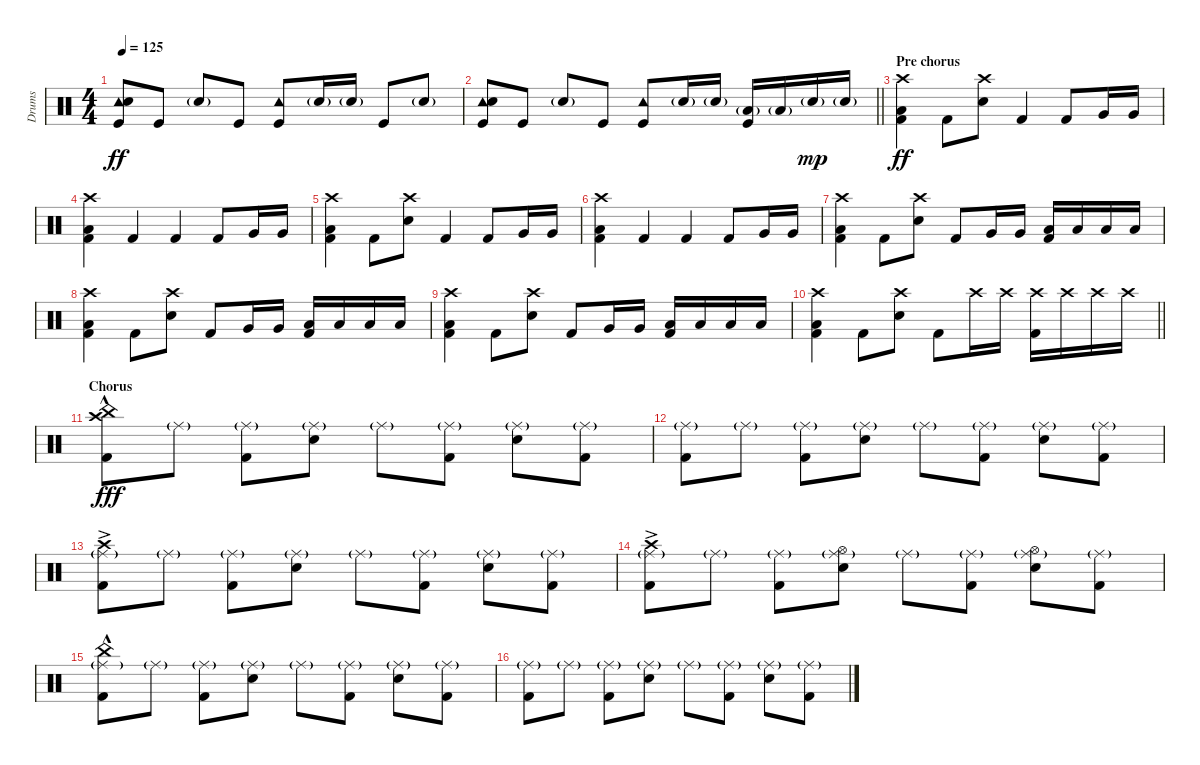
\track ("Drums" "Drums") {instrument percussion}
\staff
\articulation defaults
\ts (4 4)
\tempo 125
\clef neutral
\ks c
("Kick (hit)" "Tambourine (hit)" "Snare (hit)").8{dy ff} "Kick (hit)".8 "Snare (hit) 2"{g}.8 "Kick (hit)".8 ("Kick (hit)" "Tambourine (hit)").8 "Snare (hit) 2"{g}.16 "Snare (hit) 2"{g}.16 "Kick (hit)".8 "Snare (hit) 2"{g}.8 |
\barLineRight lightlight
("Kick (hit)" "Tambourine (hit)" "Snare (hit)").8 "Kick (hit)".8 "Snare (hit) 2"{g}.8 "Kick (hit)".8 ("Kick (hit)" "Tambourine (hit)").8 "Snare (hit) 2"{g}.16 "Snare (hit) 2"{g}.16 ("Low Tom (hit)"{g} "Kick (hit)").16 "Low Tom (hit)"{g}.16 "Snare (hit) 2"{g}.16{dy mp} "Snare (hit) 2"{g}.16 |
\section ("" "Pre chorus")
("Low Tom (hit)" "Kick (hit) 2" "Crash high (hit)").4{dy ff} "Kick (hit) 2".8 ("Crash high (hit)" "Snare (hit) 2").8 "Kick (hit) 2".4 "Kick (hit) 2".8 "Very Low Tom (hit)".16 "Very Low Tom (hit)".16 |
("Low Tom (hit)" "Kick (hit) 2" "Crash high (hit)").4 "Kick (hit) 2".4 "Kick (hit) 2".4 "Kick (hit) 2".8 "Very Low Tom (hit)".16 "Very Low Tom (hit)".16 |
("Low Tom (hit)" "Kick (hit) 2" "Crash high (hit)").4 "Kick (hit) 2".8 ("Crash high (hit)" "Snare (hit) 2").8 "Kick (hit) 2".4 "Kick (hit) 2".8 "Very Low Tom (hit)".16 "Very Low Tom (hit)".16 |
("Low Tom (hit)" "Kick (hit) 2" "Crash high (hit)").4 "Kick (hit) 2".4 "Kick (hit) 2".4 "Kick (hit) 2".8 "Very Low Tom (hit)".16 "Very Low Tom (hit)".16 |
("Low Tom (hit)" "Kick (hit) 2" "Crash high (hit)").4 "Kick (hit) 2".8 ("Crash high (hit)" "Snare (hit) 2").8 "Kick (hit) 2".8 "Very Low Tom (hit)".16 "Very Low Tom (hit)".16 ("Low Tom (hit)" "Kick (hit) 2").16 "Low Tom (hit)".16 "Low Floor Tom (hit)".16 "Low Floor Tom (hit)".16 |
("Low Tom (hit)" "Kick (hit) 2" "Crash high (hit)").4 "Kick (hit) 2".8 ("Crash high (hit)" "Snare (hit) 2").8 "Kick (hit) 2".8 "Very Low Tom (hit)".16 "Very Low Tom (hit)".16 ("Low Tom (hit)" "Kick (hit) 2").16 "Low Tom (hit)".16 "Low Floor Tom (hit)".16 "Low Floor Tom (hit)".16 |
("Low Tom (hit)" "Kick (hit) 2" "Crash high (hit)").4 "Kick (hit) 2".8 ("Crash high (hit)" "Snare (hit) 2").8 "Kick (hit) 2".8 "Very Low Tom (hit)".16 "Very Low Tom (hit)".16 ("Low Tom (hit)" "Kick (hit) 2").16 "Low Tom (hit)".16 "Low Floor Tom (hit)".16 "Low Floor Tom (hit)".16 |
\barLineRight lightlight
("Low Tom (hit)" "Kick (hit) 2" "Crash high (hit)").4 "Kick (hit) 2".8 ("Crash high (hit)" "Snare (hit) 2").8 "Kick (hit) 2".8 "Crash high (hit)".16 "Crash high (hit)".16 ("Crash high (hit)" "Kick (hit) 2").16 "Crash high (hit)".16 "Crash high (hit)".16 "Crash high (hit)".16 |
\section ("" "Chorus")
("Crash high (hit)" "Kick (hit) 2"{hac} "China (hit)"{hac}).8{dy fff} "Ride (middle)"{g}.8 ("Kick (hit) 2" "Ride (middle)"{g}).8 ("Snare (hit) 2" "Ride (middle)"{g}).8 "Ride (middle)"{g}.8 ("Kick (hit) 2" "Ride (middle)"{g}).8 ("Snare (hit) 2" "Ride (middle)"{g}).8 ("Kick (hit) 2" "Ride (middle)"{g}).8 |
("Kick (hit) 2" "Ride (middle)"{g}).8 "Ride (middle)"{g}.8 ("Kick (hit) 2" "Ride (middle)"{g}).8 ("Snare (hit) 2" "Ride (middle)"{g}).8 "Ride (middle)"{g}.8 ("Kick (hit) 2" "Ride (middle)"{g}).8 ("Snare (hit) 2" "Ride (middle)"{g}).8 ("Kick (hit) 2" "Ride (middle)"{g}).8 |
("Crash high (hit)"{ac} "Kick (hit) 2" "Ride (middle)"{g}).8 "Ride (middle)"{g}.8 ("Kick (hit) 2" "Ride (middle)"{g}).8 ("Snare (hit) 2" "Ride (middle)"{g}).8 "Ride (middle)"{g}.8 ("Kick (hit) 2" "Ride (middle)"{g}).8 ("Snare (hit) 2" "Ride (middle)"{g}).8 ("Kick (hit) 2" "Ride (middle)"{g}).8 |
("Crash high (hit)"{ac} "Kick (hit) 2" "Ride (middle)"{g}).8 "Ride (middle)"{g}.8 ("Kick (hit) 2" "Ride (middle)"{g}).8 ("Snare (hit) 2" "Hi-Hat (open)" "Ride (middle)"{g}).8 "Ride (middle)"{g}.8 ("Kick (hit) 2" "Ride (middle)"{g}).8 ("Snare (hit) 2" "Hi-Hat (open)" "Ride (middle)"{g}).8 ("Kick (hit) 2" "Ride (middle)"{g}).8 |
("China (hit)"{hac} "Kick (hit) 2" "Ride (middle)"{g}).8 "Ride (middle)"{g}.8 ("Kick (hit) 2" "Ride (middle)"{g}).8 ("Snare (hit) 2" "Ride (middle)"{g}).8 "Ride (middle)"{g}.8 ("Kick (hit) 2" "Ride (middle)"{g}).8 ("Snare (hit) 2" "Ride (middle)"{g}).8 ("Kick (hit) 2" "Ride (middle)"{g}).8 |
("Kick (hit) 2" "Ride (middle)"{g}).8 "Ride (middle)"{g}.8 ("Kick (hit) 2" "Ride (middle)"{g}).8 ("Snare (hit) 2" "Ride (middle)"{g}).8 "Ride (middle)"{g}.8 ("Kick (hit) 2" "Ride (middle)"{g}).8 ("Snare (hit) 2" "Ride (middle)"{g}).8 ("Kick (hit) 2" "Ride (middle)"{g}).8
